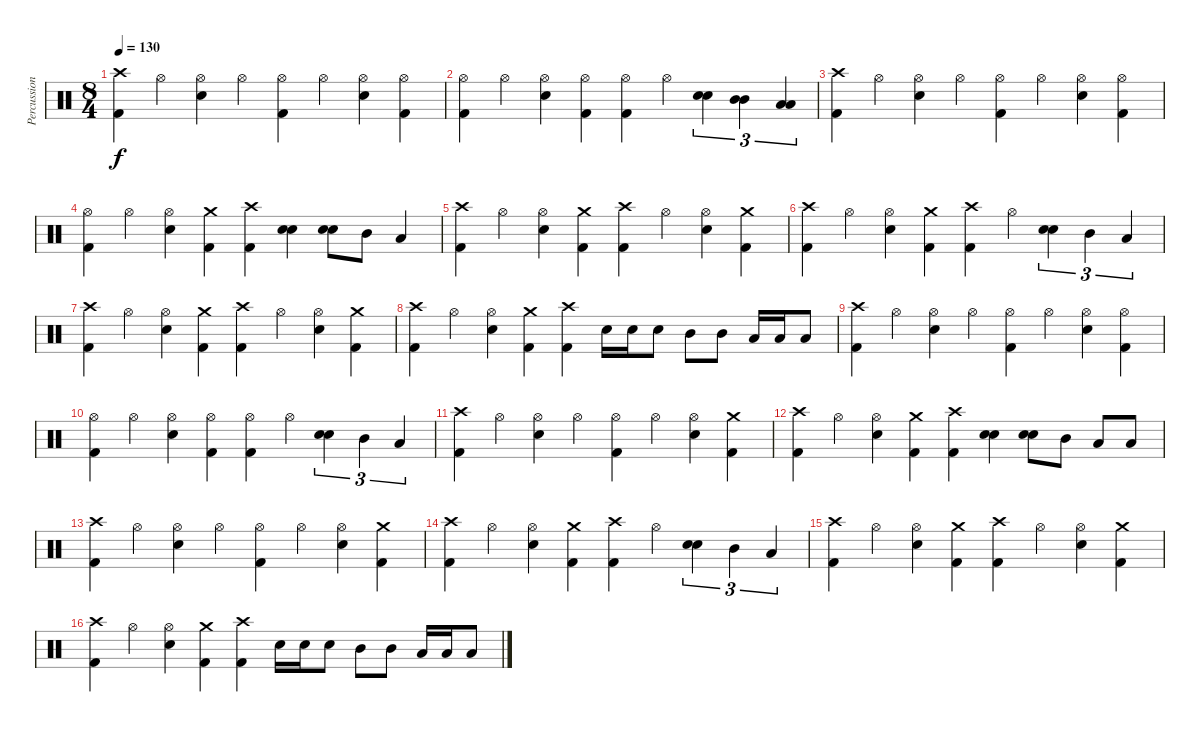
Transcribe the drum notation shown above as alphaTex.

\track ("Percussion" "Percussion") {instrument percussion}
\staff {score}
\articulation defaults
\ts (8 4)
\tempo 130
\clef neutral
\ks c
("Crash high (hit)" "Kick (hit) 2").4{dy f} "Hi-Hat (open)".4 ("Hi-Hat (open)" "Electric Snare (hit)").4 "Hi-Hat (open)".4 ("Hi-Hat (open)" "Kick (hit) 2").4 "Hi-Hat (open)".4 ("Hi-Hat (open)" "Electric Snare (hit)").4 ("Hi-Hat (open)" "Kick (hit) 2").4 |
("Hi-Hat (open)" "Kick (hit) 2").4 "Hi-Hat (open)".4 ("Hi-Hat (open)" "Electric Snare (hit)").4 ("Hi-Hat (open)" "Kick (hit) 2").4 ("Hi-Hat (open)" "Kick (hit) 2").4 "Hi-Hat (open)".4 ("Electric Snare (hit)" "Electric Snare (hit)").4{tu (3 2) bu 60} ("Mid Tom (hit)" "Mid Tom (hit)").4{tu (3 2) bu 60} ("Low Tom (hit)" "Low Tom (hit)").4{tu (3 2) bu 60} |
("Crash high (hit)" "Kick (hit) 2").4 "Hi-Hat (open)".4 ("Hi-Hat (open)" "Electric Snare (hit)").4 "Hi-Hat (open)".4 ("Hi-Hat (open)" "Kick (hit) 2").4 "Hi-Hat (open)".4 ("Hi-Hat (open)" "Electric Snare (hit)").4 ("Hi-Hat (open)" "Kick (hit) 2").4 |
("Hi-Hat (open)" "Kick (hit) 2").4 "Hi-Hat (open)".4 ("Hi-Hat (open)" "Electric Snare (hit)").4 ("Crash medium (hit)" "Kick (hit) 2").4 ("Crash high (hit)" "Kick (hit) 2").4 ("Electric Snare (hit)" "Electric Snare (hit)").4{bu 60} ("Electric Snare (hit)" "Electric Snare (hit)").8{bu 60} "Mid Tom (hit)".8 "Low Tom (hit)".4 |
("Crash high (hit)" "Kick (hit) 2").4 "Hi-Hat (open)".4 ("Hi-Hat (open)" "Electric Snare (hit)").4 ("Crash medium (hit)" "Kick (hit) 2").4 ("Crash high (hit)" "Kick (hit) 2").4 "Hi-Hat (open)".4 ("Hi-Hat (open)" "Electric Snare (hit)").4 ("Crash medium (hit)" "Kick (hit) 2").4 |
("Crash high (hit)" "Kick (hit) 2").4 "Hi-Hat (open)".4 ("Hi-Hat (open)" "Electric Snare (hit)").4 ("Crash medium (hit)" "Kick (hit) 2").4 ("Crash high (hit)" "Kick (hit) 2").4 "Hi-Hat (open)".4 ("Electric Snare (hit)" "Electric Snare (hit)").4{tu (3 2) bu 60} "Mid Tom (hit)".4{tu (3 2)} "Low Tom (hit)".4{tu (3 2)} |
("Crash high (hit)" "Kick (hit) 2").4 "Hi-Hat (open)".4 ("Hi-Hat (open)" "Electric Snare (hit)").4 ("Crash medium (hit)" "Kick (hit) 2").4 ("Crash high (hit)" "Kick (hit) 2").4 "Hi-Hat (open)".4 ("Hi-Hat (open)" "Electric Snare (hit)").4 ("Crash medium (hit)" "Kick (hit) 2").4 |
("Crash high (hit)" "Kick (hit) 2").4 "Hi-Hat (open)".4 ("Hi-Hat (open)" "Electric Snare (hit)").4 ("Crash medium (hit)" "Kick (hit) 2").4 ("Crash high (hit)" "Kick (hit) 2").4 "Electric Snare (hit)".16 "Electric Snare (hit)".16 "Electric Snare (hit)".8 "Mid Tom (hit)".8 "Mid Tom (hit)".8 "Low Tom (hit)".16 "Low Tom (hit)".16 "Low Tom (hit)".8 |
("Crash high (hit)" "Kick (hit) 2").4 "Hi-Hat (open)".4 ("Hi-Hat (open)" "Electric Snare (hit)").4 "Hi-Hat (open)".4 ("Hi-Hat (open)" "Kick (hit) 2").4 "Hi-Hat (open)".4 ("Hi-Hat (open)" "Electric Snare (hit)").4 ("Hi-Hat (open)" "Kick (hit) 2").4 |
("Hi-Hat (open)" "Kick (hit) 2").4 "Hi-Hat (open)".4 ("Hi-Hat (open)" "Electric Snare (hit)").4 ("Hi-Hat (open)" "Kick (hit) 2").4 ("Hi-Hat (open)" "Kick (hit) 2").4 "Hi-Hat (open)".4 ("Electric Snare (hit)" "Electric Snare (hit)").4{tu (3 2) bu 60} "Mid Tom (hit)".4{tu (3 2)} "Low Tom (hit)".4{tu (3 2)} |
("Crash high (hit)" "Kick (hit) 2").4 "Hi-Hat (open)".4 ("Hi-Hat (open)" "Electric Snare (hit)").4 "Hi-Hat (open)".4 ("Hi-Hat (open)" "Kick (hit) 2").4 "Hi-Hat (open)".4 ("Hi-Hat (open)" "Electric Snare (hit)").4 ("Crash medium (hit)" "Kick (hit) 2").4 |
("Crash high (hit)" "Kick (hit) 2").4 "Hi-Hat (open)".4 ("Hi-Hat (open)" "Electric Snare (hit)").4 ("Crash medium (hit)" "Kick (hit) 2").4 ("Crash high (hit)" "Kick (hit) 2").4 ("Electric Snare (hit)" "Electric Snare (hit)").4{bu 60} ("Electric Snare (hit)" "Electric Snare (hit)").8{bu 60} "Mid Tom (hit)".8 "Low Tom (hit)".8 "Low Tom (hit)".8 |
("Crash high (hit)" "Kick (hit) 2").4 "Hi-Hat (open)".4 ("Hi-Hat (open)" "Electric Snare (hit)").4 "Hi-Hat (open)".4 ("Hi-Hat (open)" "Kick (hit) 2").4 "Hi-Hat (open)".4 ("Hi-Hat (open)" "Electric Snare (hit)").4 ("Crash medium (hit)" "Kick (hit) 2").4 |
("Crash high (hit)" "Kick (hit) 2").4 "Hi-Hat (open)".4 ("Hi-Hat (open)" "Electric Snare (hit)").4 ("Crash medium (hit)" "Kick (hit) 2").4 ("Crash high (hit)" "Kick (hit) 2").4 "Hi-Hat (open)".4 ("Electric Snare (hit)" "Electric Snare (hit)").4{tu (3 2) bu 60} "Mid Tom (hit)".4{tu (3 2)} "Low Tom (hit)".4{tu (3 2)} |
("Crash high (hit)" "Kick (hit) 2").4 "Hi-Hat (open)".4 ("Hi-Hat (open)" "Electric Snare (hit)").4 ("Crash medium (hit)" "Kick (hit) 2").4 ("Crash high (hit)" "Kick (hit) 2").4 "Hi-Hat (open)".4 ("Hi-Hat (open)" "Electric Snare (hit)").4 ("Crash medium (hit)" "Kick (hit) 2").4 |
("Crash high (hit)" "Kick (hit) 2").4 "Hi-Hat (open)".4 ("Hi-Hat (open)" "Electric Snare (hit)").4 ("Crash medium (hit)" "Kick (hit) 2").4 ("Crash high (hit)" "Kick (hit) 2").4 "Electric Snare (hit)".16 "Electric Snare (hit)".16 "Electric Snare (hit)".8 "Mid Tom (hit)".8 "Mid Tom (hit)".8 "Low Tom (hit)".16 "Low Tom (hit)".16 "Low Tom (hit)".8
